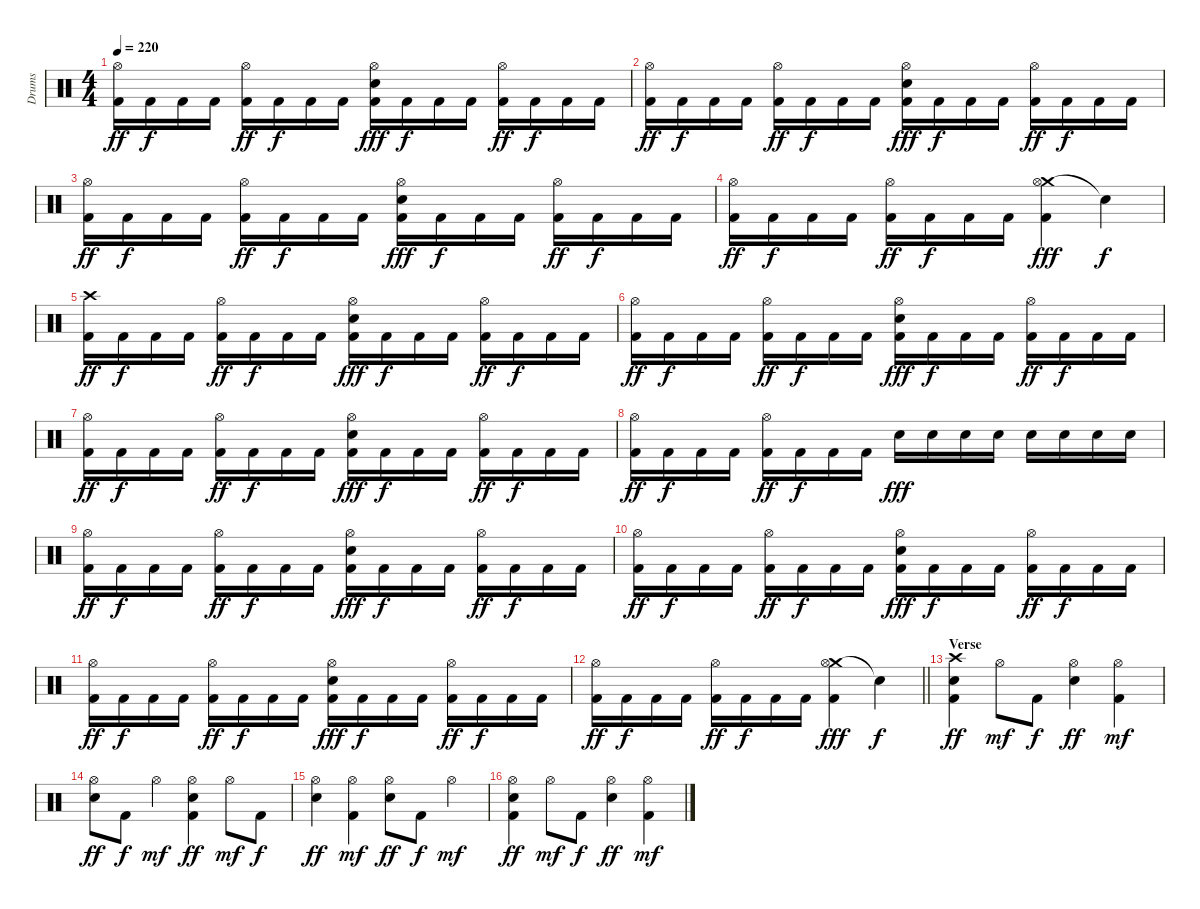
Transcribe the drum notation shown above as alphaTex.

\track ("Drums" "Drums") {instrument percussion}
\staff {score}
\articulation defaults
\ts (4 4)
\tempo 220
\clef neutral
\ks c
("Hi-Hat (open)" "Kick (hit) 2").16{dy ff} "Kick (hit) 2".16{dy f} "Kick (hit) 2".16 "Kick (hit) 2".16 ("Hi-Hat (open)" "Kick (hit) 2").16{dy ff} "Kick (hit) 2".16{dy f} "Kick (hit) 2".16 "Kick (hit) 2".16 ("Hi-Hat (open)" "Snare (hit) 2" "Kick (hit) 2").16{dy fff} "Kick (hit) 2".16{dy f} "Kick (hit) 2".16 "Kick (hit) 2".16 ("Hi-Hat (open)" "Kick (hit) 2").16{dy ff} "Kick (hit) 2".16{dy f} "Kick (hit) 2".16 "Kick (hit) 2".16 |
("Hi-Hat (open)" "Kick (hit) 2").16{dy ff} "Kick (hit) 2".16{dy f} "Kick (hit) 2".16 "Kick (hit) 2".16 ("Hi-Hat (open)" "Kick (hit) 2").16{dy ff} "Kick (hit) 2".16{dy f} "Kick (hit) 2".16 "Kick (hit) 2".16 ("Hi-Hat (open)" "Snare (hit) 2" "Kick (hit) 2").16{dy fff} "Kick (hit) 2".16{dy f} "Kick (hit) 2".16 "Kick (hit) 2".16 ("Hi-Hat (open)" "Kick (hit) 2").16{dy ff} "Kick (hit) 2".16{dy f} "Kick (hit) 2".16 "Kick (hit) 2".16 |
("Hi-Hat (open)" "Kick (hit) 2").16{dy ff} "Kick (hit) 2".16{dy f} "Kick (hit) 2".16 "Kick (hit) 2".16 ("Hi-Hat (open)" "Kick (hit) 2").16{dy ff} "Kick (hit) 2".16{dy f} "Kick (hit) 2".16 "Kick (hit) 2".16 ("Hi-Hat (open)" "Snare (hit) 2" "Kick (hit) 2").16{dy fff} "Kick (hit) 2".16{dy f} "Kick (hit) 2".16 "Kick (hit) 2".16 ("Hi-Hat (open)" "Kick (hit) 2").16{dy ff} "Kick (hit) 2".16{dy f} "Kick (hit) 2".16 "Kick (hit) 2".16 |
("Hi-Hat (open)" "Kick (hit) 2").16{dy ff} "Kick (hit) 2".16{dy f} "Kick (hit) 2".16 "Kick (hit) 2".16 ("Hi-Hat (open)" "Kick (hit) 2").16{dy ff} "Kick (hit) 2".16{dy f} "Kick (hit) 2".16 "Kick (hit) 2".16 ("Crash medium (hit)" "Hi-Hat (open)" "Kick (hit) 2").4{dy fff} "Snare (hit)"{t}.4{dy f} |
("Crash high (hit)" "Kick (hit) 2").16{dy ff} "Kick (hit) 2".16{dy f} "Kick (hit) 2".16 "Kick (hit) 2".16 ("Hi-Hat (open)" "Kick (hit) 2").16{dy ff} "Kick (hit) 2".16{dy f} "Kick (hit) 2".16 "Kick (hit) 2".16 ("Hi-Hat (open)" "Snare (hit) 2" "Kick (hit) 2").16{dy fff} "Kick (hit) 2".16{dy f} "Kick (hit) 2".16 "Kick (hit) 2".16 ("Hi-Hat (open)" "Kick (hit) 2").16{dy ff} "Kick (hit) 2".16{dy f} "Kick (hit) 2".16 "Kick (hit) 2".16 |
("Hi-Hat (open)" "Kick (hit) 2").16{dy ff} "Kick (hit) 2".16{dy f} "Kick (hit) 2".16 "Kick (hit) 2".16 ("Hi-Hat (open)" "Kick (hit) 2").16{dy ff} "Kick (hit) 2".16{dy f} "Kick (hit) 2".16 "Kick (hit) 2".16 ("Hi-Hat (open)" "Snare (hit) 2" "Kick (hit) 2").16{dy fff} "Kick (hit) 2".16{dy f} "Kick (hit) 2".16 "Kick (hit) 2".16 ("Hi-Hat (open)" "Kick (hit) 2").16{dy ff} "Kick (hit) 2".16{dy f} "Kick (hit) 2".16 "Kick (hit) 2".16 |
("Hi-Hat (open)" "Kick (hit) 2").16{dy ff} "Kick (hit) 2".16{dy f} "Kick (hit) 2".16 "Kick (hit) 2".16 ("Hi-Hat (open)" "Kick (hit) 2").16{dy ff} "Kick (hit) 2".16{dy f} "Kick (hit) 2".16 "Kick (hit) 2".16 ("Hi-Hat (open)" "Snare (hit) 2" "Kick (hit) 2").16{dy fff} "Kick (hit) 2".16{dy f} "Kick (hit) 2".16 "Kick (hit) 2".16 ("Hi-Hat (open)" "Kick (hit) 2").16{dy ff} "Kick (hit) 2".16{dy f} "Kick (hit) 2".16 "Kick (hit) 2".16 |
("Hi-Hat (open)" "Kick (hit) 2").16{dy ff} "Kick (hit) 2".16{dy f} "Kick (hit) 2".16 "Kick (hit) 2".16 ("Hi-Hat (open)" "Kick (hit) 2").16{dy ff} "Kick (hit) 2".16{dy f} "Kick (hit) 2".16 "Kick (hit) 2".16 "Snare (hit) 2".16{dy fff} "Snare (hit) 2".16 "Snare (hit) 2".16 "Snare (hit) 2".16 "Snare (hit) 2".16 "Snare (hit) 2".16 "Snare (hit) 2".16 "Snare (hit) 2".16 |
("Hi-Hat (open)" "Kick (hit) 2").16{dy ff} "Kick (hit) 2".16{dy f} "Kick (hit) 2".16 "Kick (hit) 2".16 ("Hi-Hat (open)" "Kick (hit) 2").16{dy ff} "Kick (hit) 2".16{dy f} "Kick (hit) 2".16 "Kick (hit) 2".16 ("Hi-Hat (open)" "Snare (hit) 2" "Kick (hit) 2").16{dy fff} "Kick (hit) 2".16{dy f} "Kick (hit) 2".16 "Kick (hit) 2".16 ("Hi-Hat (open)" "Kick (hit) 2").16{dy ff} "Kick (hit) 2".16{dy f} "Kick (hit) 2".16 "Kick (hit) 2".16 |
("Hi-Hat (open)" "Kick (hit) 2").16{dy ff} "Kick (hit) 2".16{dy f} "Kick (hit) 2".16 "Kick (hit) 2".16 ("Hi-Hat (open)" "Kick (hit) 2").16{dy ff} "Kick (hit) 2".16{dy f} "Kick (hit) 2".16 "Kick (hit) 2".16 ("Hi-Hat (open)" "Snare (hit) 2" "Kick (hit) 2").16{dy fff} "Kick (hit) 2".16{dy f} "Kick (hit) 2".16 "Kick (hit) 2".16 ("Hi-Hat (open)" "Kick (hit) 2").16{dy ff} "Kick (hit) 2".16{dy f} "Kick (hit) 2".16 "Kick (hit) 2".16 |
("Hi-Hat (open)" "Kick (hit) 2").16{dy ff} "Kick (hit) 2".16{dy f} "Kick (hit) 2".16 "Kick (hit) 2".16 ("Hi-Hat (open)" "Kick (hit) 2").16{dy ff} "Kick (hit) 2".16{dy f} "Kick (hit) 2".16 "Kick (hit) 2".16 ("Hi-Hat (open)" "Snare (hit) 2" "Kick (hit) 2").16{dy fff} "Kick (hit) 2".16{dy f} "Kick (hit) 2".16 "Kick (hit) 2".16 ("Hi-Hat (open)" "Kick (hit) 2").16{dy ff} "Kick (hit) 2".16{dy f} "Kick (hit) 2".16 "Kick (hit) 2".16 |
\barLineRight lightlight
("Hi-Hat (open)" "Kick (hit) 2").16{dy ff} "Kick (hit) 2".16{dy f} "Kick (hit) 2".16 "Kick (hit) 2".16 ("Hi-Hat (open)" "Kick (hit) 2").16{dy ff} "Kick (hit) 2".16{dy f} "Kick (hit) 2".16 "Kick (hit) 2".16 ("Crash medium (hit)" "Hi-Hat (open)" "Kick (hit) 2").4{dy fff} "Snare (hit)"{t}.4{dy f} |
\section ("" "Verse")
("Crash high (hit)" "Snare (hit) 2" "Kick (hit) 2").4{dy ff} "Hi-Hat (open)".8{dy mf} "Kick (hit) 2".8{dy f} ("Hi-Hat (open)" "Snare (hit) 2").4{dy ff} ("Hi-Hat (open)" "Kick (hit) 2").4{dy mf} |
("Hi-Hat (open)" "Snare (hit) 2").8{dy ff} "Kick (hit) 2".8{dy f} "Hi-Hat (open)".4{dy mf} ("Hi-Hat (open)" "Snare (hit) 2" "Kick (hit) 2").4{dy ff} "Hi-Hat (open)".8{dy mf} "Kick (hit) 2".8{dy f} |
("Hi-Hat (open)" "Snare (hit) 2").4{dy ff} ("Hi-Hat (open)" "Kick (hit) 2").4{dy mf} ("Hi-Hat (open)" "Snare (hit) 2").8{dy ff} "Kick (hit) 2".8{dy f} "Hi-Hat (open)".4{dy mf} |
("Hi-Hat (open)" "Snare (hit) 2" "Kick (hit) 2").4{dy ff} "Hi-Hat (open)".8{dy mf} "Kick (hit) 2".8{dy f} ("Hi-Hat (open)" "Snare (hit) 2").4{dy ff} ("Hi-Hat (open)" "Kick (hit) 2").4{dy mf}
